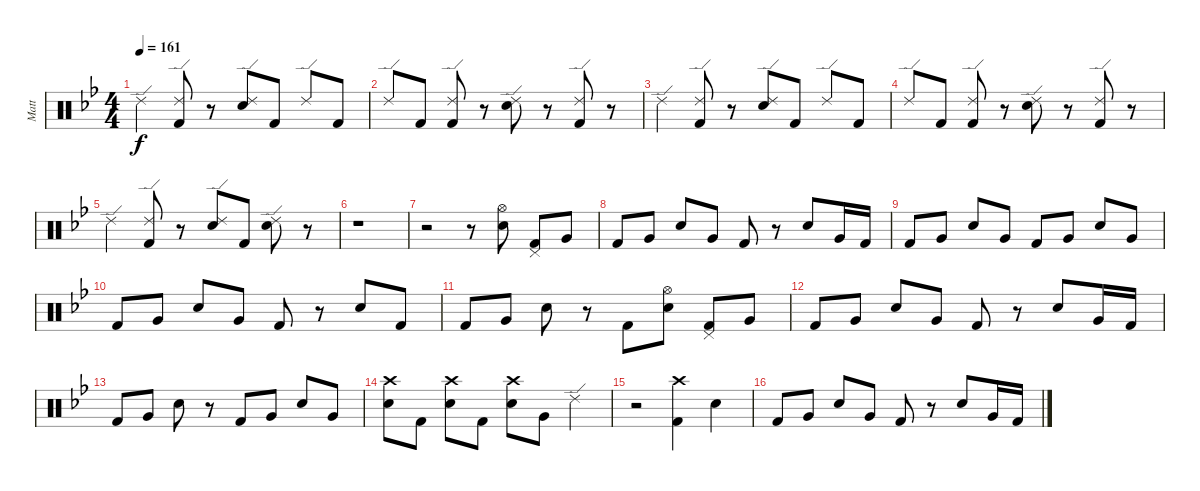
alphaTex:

\track ("Matt" "Matt") {instrument percussion}
\staff {score}
\articulation defaults
\ts (4 4)
\tempo 161
\clef neutral
\ks bb "Ride (edge) 2".4{dy f}
("Ride (edge) 2" "Kick (hit) 2").8 r.8 ("Ride (edge) 2" "Snare (hit) 2").8 "Kick (hit) 2".8 "Ride (edge) 2".8 "Kick (hit) 2".8 |
"Ride (edge) 2".8 "Kick (hit) 2".8 ("Ride (edge) 2" "Kick (hit) 2").8 r.8 ("Ride (edge) 2" "Snare (hit) 2").8 r.8 ("Ride (edge) 2" "Kick (hit) 2").8 r.8 |
"Ride (edge) 2".4 ("Ride (edge) 2" "Kick (hit) 2").8 r.8 ("Ride (edge) 2" "Snare (hit) 2").8 "Kick (hit) 2".8 "Ride (edge) 2".8 "Kick (hit) 2".8 |
"Ride (edge) 2".8 "Kick (hit) 2".8 ("Ride (edge) 2" "Kick (hit) 2").8 r.8 ("Ride (edge) 2" "Snare (hit) 2").8 r.8 ("Ride (edge) 2" "Kick (hit) 2").8 r.8 |
"Ride (edge) 2".4 ("Ride (edge) 2" "Kick (hit) 2").8 r.8 ("Ride (edge) 2" "Snare (hit) 2").8 "Kick (hit) 2".8 ("Ride (edge) 2" "Snare (hit) 2").8 r.8 |
r.1 |
r.2 r.8 ("Hi-Hat (open)" "Snare (hit) 2").8 ("Pedal Hi-Hat (hit)" "Kick (hit) 2").8 "Very Low Tom (hit)".8 |
"Kick (hit) 2".8 "Very Low Tom (hit)".8 "Snare (hit) 2".8 "Very Low Tom (hit)".8 "Kick (hit) 2".8 r.8 "Snare (hit) 2".8 "Very Low Tom (hit)".16 "Kick (hit) 2".16 |
"Kick (hit) 2".8 "Very Low Tom (hit)".8 "Snare (hit) 2".8 "Very Low Tom (hit)".8 "Kick (hit) 2".8 "Very Low Tom (hit)".8 "Snare (hit) 2".8 "Very Low Tom (hit)".8 |
"Kick (hit) 2".8 "Very Low Tom (hit)".8 "Snare (hit) 2".8 "Very Low Tom (hit)".8 "Kick (hit) 2".8 r.8 "Snare (hit) 2".8 "Kick (hit) 2".8 |
"Kick (hit) 2".8 "Very Low Tom (hit)".8 "Snare (hit) 2".8 r.8 "Kick (hit) 2".8 ("Hi-Hat (open)" "Snare (hit) 2").8 ("Pedal Hi-Hat (hit)" "Kick (hit) 2").8 "Very Low Tom (hit)".8 |
"Kick (hit) 2".8 "Very Low Tom (hit)".8 "Snare (hit) 2".8 "Very Low Tom (hit)".8 "Kick (hit) 2".8 r.8 "Snare (hit) 2".8 "Very Low Tom (hit)".16 "Kick (hit) 2".16 |
"Kick (hit) 2".8 "Very Low Tom (hit)".8 "Snare (hit) 2".8 r.8 "Kick (hit) 2".8 "Very Low Tom (hit)".8 "Snare (hit) 2".8 "Very Low Tom (hit)".8 |
("Crash high (hit)" "Snare (hit) 2").8 "Kick (hit) 2".8 ("Crash high (hit)" "Snare (hit) 2").8 "Kick (hit) 2".8 ("Crash high (hit)" "Snare (hit) 2").8 "Very Low Tom (hit)".8 "Ride (edge) 2".4 |
r.2 ("Crash high (hit)" "Kick (hit) 2").4 "Snare (hit) 2".4 |
"Kick (hit) 2".8 "Very Low Tom (hit)".8 "Snare (hit) 2".8 "Very Low Tom (hit)".8 "Kick (hit) 2".8 r.8 "Snare (hit) 2".8 "Very Low Tom (hit)".16 "Kick (hit) 2".16
